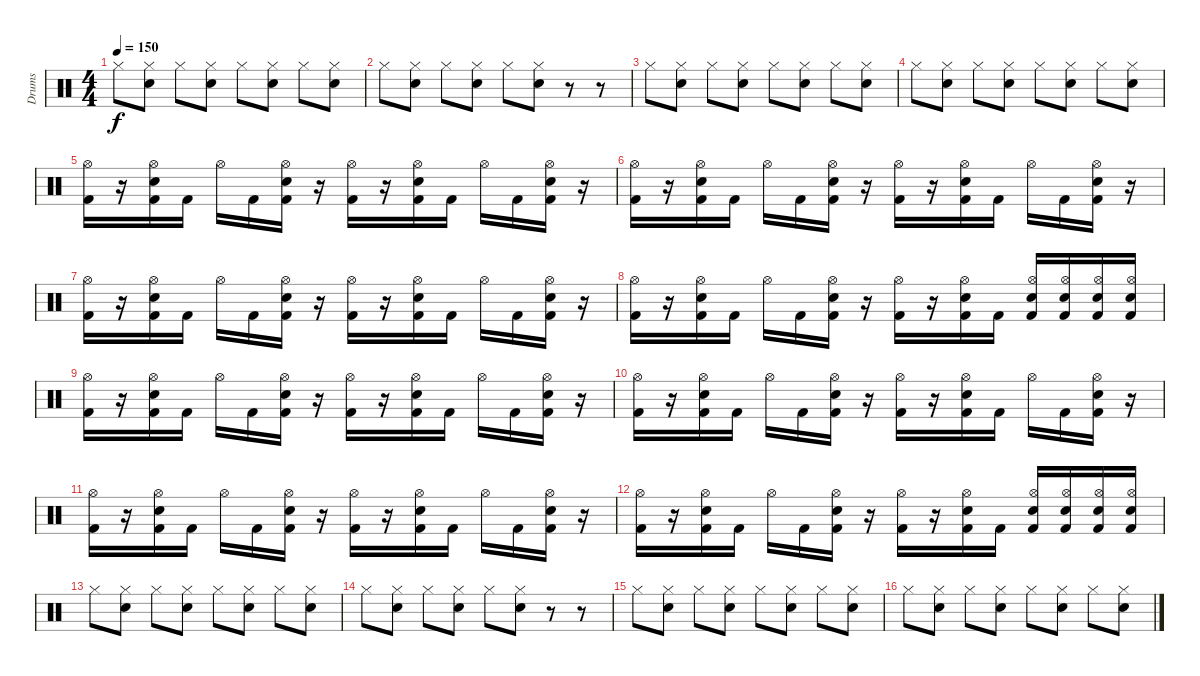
\track ("Drums" "Drums") {instrument percussion}
\staff {score}
\articulation defaults
\ts (4 4)
\tempo 150
\clef neutral
\ks c "Hi-Hat (closed)".8{dy f}
("Hi-Hat (closed)" "Electric Snare (hit)").8 "Hi-Hat (closed)".8 ("Hi-Hat (closed)" "Electric Snare (hit)").8 "Hi-Hat (closed)".8 ("Hi-Hat (closed)" "Electric Snare (hit)").8 "Hi-Hat (closed)".8 ("Hi-Hat (closed)" "Electric Snare (hit)").8 |
"Hi-Hat (closed)".8 ("Hi-Hat (closed)" "Electric Snare (hit)").8 "Hi-Hat (closed)".8 ("Hi-Hat (closed)" "Electric Snare (hit)").8 "Hi-Hat (closed)".8 ("Hi-Hat (closed)" "Electric Snare (hit)").8 r.8 r.8 |
"Hi-Hat (closed)".8 ("Hi-Hat (closed)" "Electric Snare (hit)").8 "Hi-Hat (closed)".8 ("Hi-Hat (closed)" "Electric Snare (hit)").8 "Hi-Hat (closed)".8 ("Hi-Hat (closed)" "Electric Snare (hit)").8 "Hi-Hat (closed)".8 ("Hi-Hat (closed)" "Electric Snare (hit)").8 |
"Hi-Hat (closed)".8 ("Hi-Hat (closed)" "Electric Snare (hit)").8 "Hi-Hat (closed)".8 ("Hi-Hat (closed)" "Electric Snare (hit)").8 "Hi-Hat (closed)".8 ("Hi-Hat (closed)" "Electric Snare (hit)").8 "Hi-Hat (closed)".8 ("Hi-Hat (closed)" "Electric Snare (hit)").8 |
("Hi-Hat (open)" "Kick (hit) 2").16 r.16 ("Hi-Hat (open)" "Electric Snare (hit)" "Kick (hit) 2").16 "Kick (hit) 2".16 "Hi-Hat (open)".16 "Kick (hit) 2".16 ("Hi-Hat (open)" "Electric Snare (hit)" "Kick (hit) 2").16 r.16 ("Hi-Hat (open)" "Kick (hit) 2").16 r.16 ("Hi-Hat (open)" "Electric Snare (hit)" "Kick (hit) 2").16 "Kick (hit) 2".16 "Hi-Hat (open)".16 "Kick (hit) 2".16 ("Hi-Hat (open)" "Electric Snare (hit)" "Kick (hit) 2").16 r.16 |
("Hi-Hat (open)" "Kick (hit) 2").16 r.16 ("Hi-Hat (open)" "Electric Snare (hit)" "Kick (hit) 2").16 "Kick (hit) 2".16 "Hi-Hat (open)".16 "Kick (hit) 2".16 ("Hi-Hat (open)" "Electric Snare (hit)" "Kick (hit) 2").16 r.16 ("Hi-Hat (open)" "Kick (hit) 2").16 r.16 ("Hi-Hat (open)" "Electric Snare (hit)" "Kick (hit) 2").16 "Kick (hit) 2".16 "Hi-Hat (open)".16 "Kick (hit) 2".16 ("Hi-Hat (open)" "Electric Snare (hit)" "Kick (hit) 2").16 r.16 |
("Hi-Hat (open)" "Kick (hit) 2").16 r.16 ("Hi-Hat (open)" "Electric Snare (hit)" "Kick (hit) 2").16 "Kick (hit) 2".16 "Hi-Hat (open)".16 "Kick (hit) 2".16 ("Hi-Hat (open)" "Electric Snare (hit)" "Kick (hit) 2").16 r.16 ("Hi-Hat (open)" "Kick (hit) 2").16 r.16 ("Hi-Hat (open)" "Electric Snare (hit)" "Kick (hit) 2").16 "Kick (hit) 2".16 "Hi-Hat (open)".16 "Kick (hit) 2".16 ("Hi-Hat (open)" "Electric Snare (hit)" "Kick (hit) 2").16 r.16 |
("Hi-Hat (open)" "Kick (hit) 2").16 r.16 ("Hi-Hat (open)" "Electric Snare (hit)" "Kick (hit) 2").16 "Kick (hit) 2".16 "Hi-Hat (open)".16 "Kick (hit) 2".16 ("Hi-Hat (open)" "Electric Snare (hit)" "Kick (hit) 2").16 r.16 ("Hi-Hat (open)" "Kick (hit) 2").16 r.16 ("Hi-Hat (open)" "Electric Snare (hit)" "Kick (hit) 2").16 "Kick (hit) 2".16 ("Hi-Hat (open)" "Electric Snare (hit)" "Kick (hit) 2").16 ("Hi-Hat (open)" "Electric Snare (hit)" "Kick (hit) 2").16 ("Hi-Hat (open)" "Electric Snare (hit)" "Kick (hit) 2").16 ("Hi-Hat (open)" "Electric Snare (hit)" "Kick (hit) 2").16 |
("Hi-Hat (open)" "Kick (hit) 2").16 r.16 ("Hi-Hat (open)" "Electric Snare (hit)" "Kick (hit) 2").16 "Kick (hit) 2".16 "Hi-Hat (open)".16 "Kick (hit) 2".16 ("Hi-Hat (open)" "Electric Snare (hit)" "Kick (hit) 2").16 r.16 ("Hi-Hat (open)" "Kick (hit) 2").16 r.16 ("Hi-Hat (open)" "Electric Snare (hit)" "Kick (hit) 2").16 "Kick (hit) 2".16 "Hi-Hat (open)".16 "Kick (hit) 2".16 ("Hi-Hat (open)" "Electric Snare (hit)" "Kick (hit) 2").16 r.16 |
("Hi-Hat (open)" "Kick (hit) 2").16 r.16 ("Hi-Hat (open)" "Electric Snare (hit)" "Kick (hit) 2").16 "Kick (hit) 2".16 "Hi-Hat (open)".16 "Kick (hit) 2".16 ("Hi-Hat (open)" "Electric Snare (hit)" "Kick (hit) 2").16 r.16 ("Hi-Hat (open)" "Kick (hit) 2").16 r.16 ("Hi-Hat (open)" "Electric Snare (hit)" "Kick (hit) 2").16 "Kick (hit) 2".16 "Hi-Hat (open)".16 "Kick (hit) 2".16 ("Hi-Hat (open)" "Electric Snare (hit)" "Kick (hit) 2").16 r.16 |
("Hi-Hat (open)" "Kick (hit) 2").16 r.16 ("Hi-Hat (open)" "Electric Snare (hit)" "Kick (hit) 2").16 "Kick (hit) 2".16 "Hi-Hat (open)".16 "Kick (hit) 2".16 ("Hi-Hat (open)" "Electric Snare (hit)" "Kick (hit) 2").16 r.16 ("Hi-Hat (open)" "Kick (hit) 2").16 r.16 ("Hi-Hat (open)" "Electric Snare (hit)" "Kick (hit) 2").16 "Kick (hit) 2".16 "Hi-Hat (open)".16 "Kick (hit) 2".16 ("Hi-Hat (open)" "Electric Snare (hit)" "Kick (hit) 2").16 r.16 |
("Hi-Hat (open)" "Kick (hit) 2").16 r.16 ("Hi-Hat (open)" "Electric Snare (hit)" "Kick (hit) 2").16 "Kick (hit) 2".16 "Hi-Hat (open)".16 "Kick (hit) 2".16 ("Hi-Hat (open)" "Electric Snare (hit)" "Kick (hit) 2").16 r.16 ("Hi-Hat (open)" "Kick (hit) 2").16 r.16 ("Hi-Hat (open)" "Electric Snare (hit)" "Kick (hit) 2").16 "Kick (hit) 2".16 ("Hi-Hat (open)" "Electric Snare (hit)" "Kick (hit) 2").16 ("Hi-Hat (open)" "Electric Snare (hit)" "Kick (hit) 2").16 ("Hi-Hat (open)" "Electric Snare (hit)" "Kick (hit) 2").16 ("Hi-Hat (open)" "Electric Snare (hit)" "Kick (hit) 2").16 |
"Hi-Hat (closed)".8 ("Hi-Hat (closed)" "Electric Snare (hit)").8 "Hi-Hat (closed)".8 ("Hi-Hat (closed)" "Electric Snare (hit)").8 "Hi-Hat (closed)".8 ("Hi-Hat (closed)" "Electric Snare (hit)").8 "Hi-Hat (closed)".8 ("Hi-Hat (closed)" "Electric Snare (hit)").8 |
"Hi-Hat (closed)".8 ("Hi-Hat (closed)" "Electric Snare (hit)").8 "Hi-Hat (closed)".8 ("Hi-Hat (closed)" "Electric Snare (hit)").8 "Hi-Hat (closed)".8 ("Hi-Hat (closed)" "Electric Snare (hit)").8 r.8 r.8 |
"Hi-Hat (closed)".8 ("Hi-Hat (closed)" "Electric Snare (hit)").8 "Hi-Hat (closed)".8 ("Hi-Hat (closed)" "Electric Snare (hit)").8 "Hi-Hat (closed)".8 ("Hi-Hat (closed)" "Electric Snare (hit)").8 "Hi-Hat (closed)".8 ("Hi-Hat (closed)" "Electric Snare (hit)").8 |
"Hi-Hat (closed)".8 ("Hi-Hat (closed)" "Electric Snare (hit)").8 "Hi-Hat (closed)".8 ("Hi-Hat (closed)" "Electric Snare (hit)").8 "Hi-Hat (closed)".8 ("Hi-Hat (closed)" "Electric Snare (hit)").8 "Hi-Hat (closed)".8 ("Hi-Hat (closed)" "Electric Snare (hit)").8
